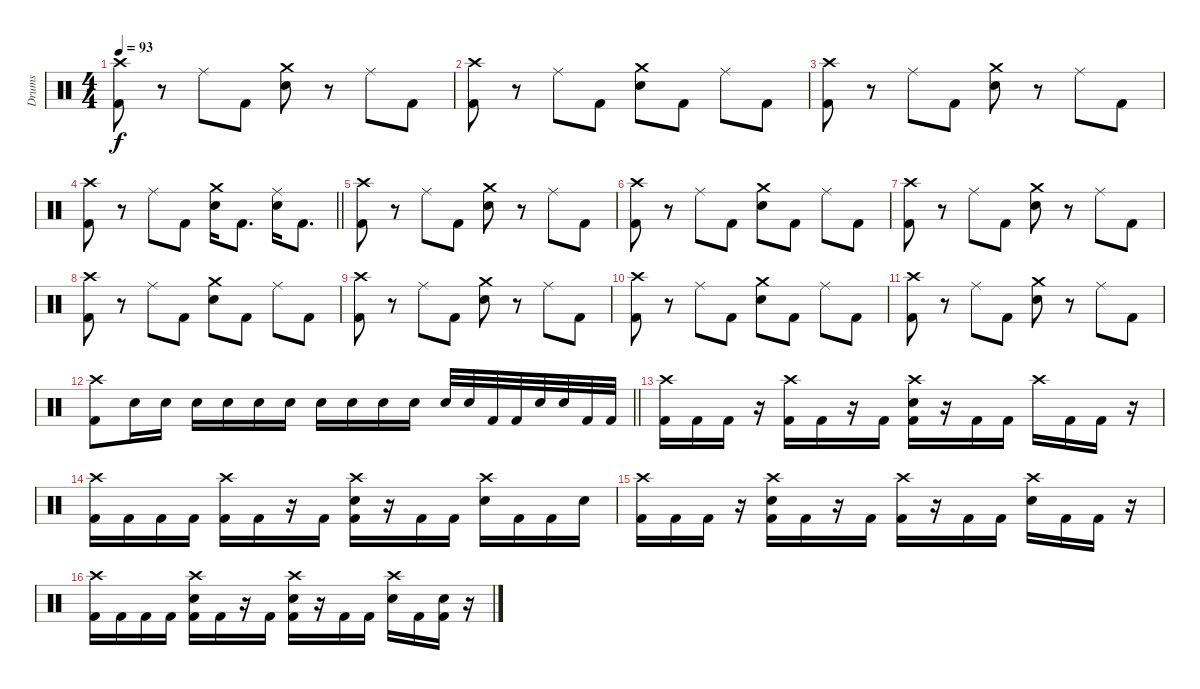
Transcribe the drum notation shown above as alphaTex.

\track ("Drums" "Drums") {instrument percussion}
\staff
\articulation defaults
\ts (4 4)
\tempo 93
\clef neutral
\ks c
("Crash high (hit)" "Kick (hit) 2").8{dy f} r.8 "Ride (middle)".8 "Kick (hit) 2".8 ("Crash medium (hit)" "Snare (hit) 2").8 r.8 "Ride (middle)".8 "Kick (hit) 2".8 |
("Crash high (hit)" "Kick (hit) 2").8 r.8 "Ride (middle)".8 "Kick (hit) 2".8 ("Crash medium (hit)" "Snare (hit) 2").8 "Kick (hit) 2".8 "Ride (middle)".8 "Kick (hit) 2".8 |
("Crash high (hit)" "Kick (hit) 2").8 r.8 "Ride (middle)".8 "Kick (hit) 2".8 ("Crash medium (hit)" "Snare (hit) 2").8 r.8 "Ride (middle)".8 "Kick (hit) 2".8 |
\barLineRight lightlight
("Crash high (hit)" "Kick (hit) 2").8 r.8 "Ride (middle)".8 "Kick (hit) 2".8 ("Crash medium (hit)" "Snare (hit) 2").16 "Kick (hit) 2".8{d} ("Ride (middle)" "Snare (hit) 2").16 "Kick (hit) 2".8{d} |
\section ("" "")
("Crash high (hit)" "Kick (hit) 2").8 r.8 "Ride (middle)".8 "Kick (hit) 2".8 ("Crash medium (hit)" "Snare (hit) 2").8 r.8 "Ride (middle)".8 "Kick (hit) 2".8 |
("Crash high (hit)" "Kick (hit) 2").8 r.8 "Ride (middle)".8 "Kick (hit) 2".8 ("Crash medium (hit)" "Snare (hit) 2").8 "Kick (hit) 2".8 "Ride (middle)".8 "Kick (hit) 2".8 |
("Crash high (hit)" "Kick (hit) 2").8 r.8 "Ride (middle)".8 "Kick (hit) 2".8 ("Crash medium (hit)" "Snare (hit) 2").8 r.8 "Ride (middle)".8 "Kick (hit) 2".8 |
("Crash high (hit)" "Kick (hit) 2").8 r.8 "Ride (middle)".8 "Kick (hit) 2".8 ("Crash medium (hit)" "Snare (hit) 2").8 "Kick (hit) 2".8 "Ride (middle)".8 "Kick (hit) 2".8 |
("Crash high (hit)" "Kick (hit) 2").8 r.8 "Ride (middle)".8 "Kick (hit) 2".8 ("Crash medium (hit)" "Snare (hit) 2").8 r.8 "Ride (middle)".8 "Kick (hit) 2".8 |
("Crash high (hit)" "Kick (hit) 2").8 r.8 "Ride (middle)".8 "Kick (hit) 2".8 ("Crash medium (hit)" "Snare (hit) 2").8 "Kick (hit) 2".8 "Ride (middle)".8 "Kick (hit) 2".8 |
("Crash high (hit)" "Kick (hit) 2").8 r.8 "Ride (middle)".8 "Kick (hit) 2".8 ("Crash medium (hit)" "Snare (hit) 2").8 r.8 "Ride (middle)".8 "Kick (hit) 2".8 |
\barLineRight lightlight
("Crash high (hit)" "Kick (hit) 2").8 "Snare (hit) 2".16{volume 8} "Snare (hit) 2".16{volume 15} "Snare (hit) 2".16 "Snare (hit) 2".16 "Snare (hit) 2".16 "Snare (hit) 2".16 "Snare (hit) 2".16 "Snare (hit) 2".16 "Snare (hit) 2".16 "Snare (hit) 2".16 "Snare (hit) 2".32 "Snare (hit) 2".32 "Kick (hit) 2".32 "Kick (hit) 2".32 "Snare (hit) 2".32 "Snare (hit) 2".32 "Kick (hit) 2".32 "Kick (hit) 2".32 |
\section ("" " ")
("Crash high (hit)" "Kick (hit) 2").16 "Kick (hit) 2".16 "Kick (hit) 2".16 r.16 ("Crash high (hit)" "Kick (hit) 2").16 "Kick (hit) 2".16 r.16 "Kick (hit) 2".16 ("Crash high (hit)" "Snare (hit) 2" "Kick (hit) 2").16 r.16 "Kick (hit) 2".16 "Kick (hit) 2".16 "Crash high (hit)".16 "Kick (hit) 2".16 "Kick (hit) 2".16 r.16 |
("Crash high (hit)" "Kick (hit) 2").16 "Kick (hit) 2".16 "Kick (hit) 2".16 "Kick (hit) 2".16 ("Crash high (hit)" "Kick (hit) 2").16 "Kick (hit) 2".16 r.16 "Kick (hit) 2".16 ("Crash high (hit)" "Snare (hit) 2" "Kick (hit) 2").16 r.16 "Kick (hit) 2".16 "Kick (hit) 2".16 ("Crash high (hit)" "Snare (hit) 2").16 "Kick (hit) 2".16 "Kick (hit) 2".16 "Snare (hit) 2".16 |
("Crash high (hit)" "Kick (hit) 2").16 "Kick (hit) 2".16 "Kick (hit) 2".16 r.16 ("Crash high (hit)" "Snare (hit) 2" "Kick (hit) 2").16 "Kick (hit) 2".16 r.16 "Kick (hit) 2".16 ("Crash high (hit)" "Kick (hit) 2").16 r.16 "Kick (hit) 2".16 "Kick (hit) 2".16 ("Crash high (hit)" "Snare (hit) 2").16 "Kick (hit) 2".16 "Kick (hit) 2".16 r.16 |
("Crash high (hit)" "Kick (hit) 2").16 "Kick (hit) 2".16 "Kick (hit) 2".16 "Kick (hit) 2".16 ("Crash high (hit)" "Snare (hit) 2" "Kick (hit) 2").16 "Kick (hit) 2".16 r.16 "Kick (hit) 2".16 ("Crash high (hit)" "Snare (hit) 2" "Kick (hit) 2").16 r.16 "Kick (hit) 2".16 "Kick (hit) 2".16 ("Crash high (hit)" "Snare (hit) 2").16 "Kick (hit) 2".16 ("Snare (hit) 2" "Kick (hit) 2").16 r.16
